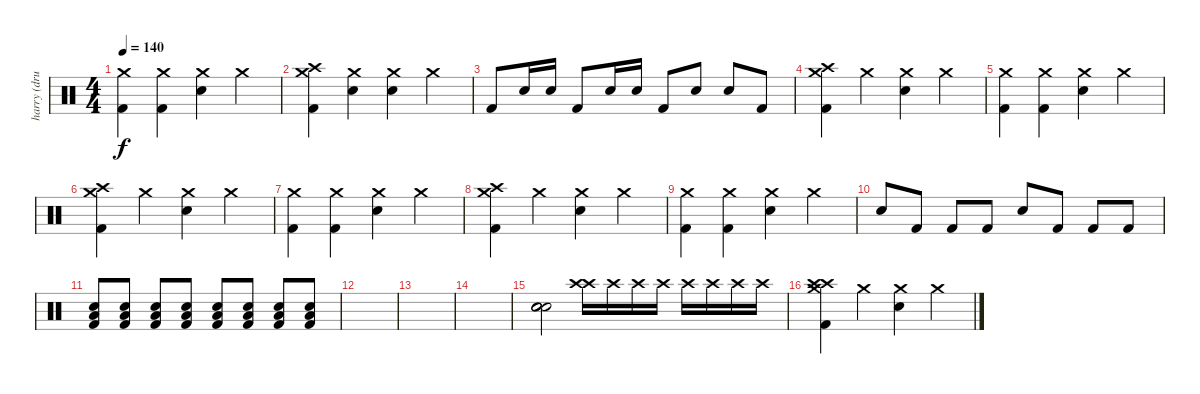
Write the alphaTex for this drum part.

\track ("harry (drum)" "harry (dru") {instrument percussion}
\staff {score}
\articulation defaults
\ts (4 4)
\tempo 140
\clef neutral
\ks c
("Kick (hit) 2" "Crash medium (hit)").4{dy f} ("Kick (hit) 2" "Crash medium (hit)").4 ("Snare (hit) 2" "Crash medium (hit)").4 "Crash medium (hit)".4 |
("Kick (hit) 2" "Crash high (hit)" "Crash medium (hit)").4 ("Snare (hit) 2" "Crash medium (hit)").4 ("Snare (hit) 2" "Crash medium (hit)").4 "Crash medium (hit)".4 |
"Kick (hit) 2".8 "Snare (hit) 2".16 "Snare (hit) 2".16 "Kick (hit) 2".8 "Snare (hit) 2".16 "Snare (hit) 2".16 "Kick (hit) 2".8 "Snare (hit) 2".8 "Snare (hit) 2".8 "Kick (hit) 2".8 |
("Kick (hit) 2" "Crash high (hit)" "Crash medium (hit)").4 "Crash medium (hit)".4 ("Snare (hit) 2" "Crash medium (hit)").4 "Crash medium (hit)".4 |
("Kick (hit) 2" "Crash medium (hit)").4 ("Kick (hit) 2" "Crash medium (hit)").4 ("Snare (hit) 2" "Crash medium (hit)").4 "Crash medium (hit)".4 |
("Kick (hit) 2" "Crash high (hit)" "Crash medium (hit)").4 "Crash medium (hit)".4 ("Snare (hit) 2" "Crash medium (hit)").4 "Crash medium (hit)".4 |
("Kick (hit) 2" "Crash medium (hit)").4 ("Kick (hit) 2" "Crash medium (hit)").4 ("Snare (hit) 2" "Crash medium (hit)").4 "Crash medium (hit)".4 |
("Kick (hit) 2" "Crash high (hit)" "Crash medium (hit)").4 "Crash medium (hit)".4 ("Snare (hit) 2" "Crash medium (hit)").4 "Crash medium (hit)".4 |
("Kick (hit) 2" "Crash medium (hit)").4 ("Kick (hit) 2" "Crash medium (hit)").4 ("Snare (hit) 2" "Crash medium (hit)").4 "Crash medium (hit)".4 |
"Snare (hit) 2".8 "Kick (hit) 2".8 "Kick (hit) 2".8 "Kick (hit) 2".8 "Snare (hit) 2".8 "Kick (hit) 2".8 "Kick (hit) 2".8 "Kick (hit) 2".8 |
("Snare (hit) 2" "Kick (hit) 2" "Low Floor Tom (hit)").8 ("Snare (hit) 2" "Kick (hit) 2" "Low Floor Tom (hit)").8 ("Snare (hit) 2" "Kick (hit) 2" "Low Floor Tom (hit)").8 ("Snare (hit) 2" "Kick (hit) 2" "Low Floor Tom (hit)").8 ("Snare (hit) 2" "Kick (hit) 2" "Low Floor Tom (hit)").8 ("Snare (hit) 2" "Kick (hit) 2" "Low Floor Tom (hit)").8 ("Snare (hit) 2" "Kick (hit) 2" "Low Floor Tom (hit)").8 ("Snare (hit) 2" "Kick (hit) 2" "Low Floor Tom (hit)").8 |
|
|
|
("Snare (hit) 2" "Snare (hit) 2" "Snare (hit) 2" "Snare (hit) 2").2 ("Crash high (hit)" "Crash high (hit)").16 "Crash high (hit)".16 "Crash high (hit)".16 "Crash high (hit)".16 "Crash high (hit)".16 "Crash high (hit)".16 "Crash high (hit)".16 "Crash high (hit)".16 |
("Kick (hit) 2" "Crash high (hit)" "Crash medium (hit)" "Crash high (hit)").4 "Crash medium (hit)".4 ("Snare (hit) 2" "Crash medium (hit)").4 "Crash medium (hit)".4
